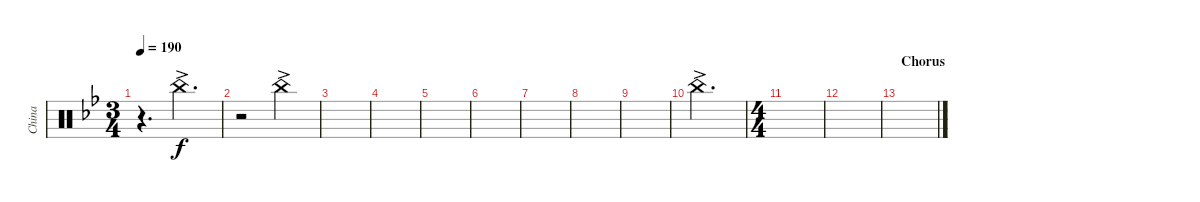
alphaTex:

\track ("China" "China") {instrument percussion}
\staff {score}
\articulation defaults
\ts (3 4)
\tempo 190
\clef neutral
\ks bb
r.4{d dy f} "China (hit)"{ac}.4{d} |
r.2 "China (hit)"{ac}.4 |
|
|
|
|
|
|
|
"China (hit)"{ac}.2{d} |
\ts (4 4)
|
|
\section ("" "Chorus")
